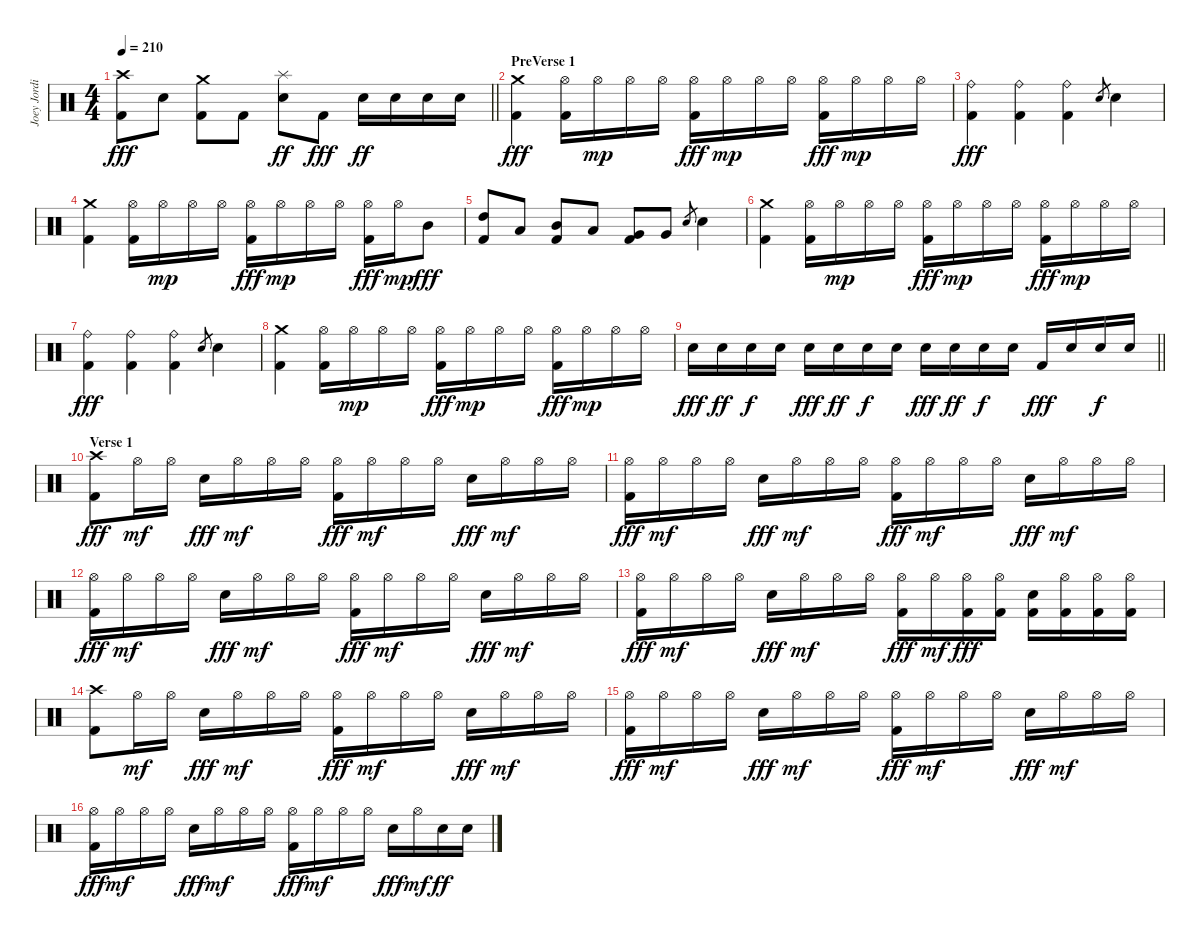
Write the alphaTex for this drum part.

\track ("Joey Jordison" "Joey Jordi") {instrument percussion}
\staff {score}
\articulation defaults
\ts (4 4)
\tempo 210
\clef neutral
\barLineRight lightlight
\ks c
("Crash high (hit)" "Kick (hit) 2").8{dy fff} "Electric Snare (hit)".8 ("Crash medium (hit)" "Kick (hit) 2").8 "Kick (hit) 2".8 ("Splash (hit)" "Electric Snare (hit)").8{dy ff} "Kick (hit) 2".8{dy fff} "Electric Snare (hit)".16{dy ff} "Electric Snare (hit)".16 "Electric Snare (hit)".16 "Electric Snare (hit)".16 |
\section ("" "PreVerse 1")
("Crash medium (hit)" "Kick (hit) 2").4{dy fff} ("Hi-Hat (open)" "Kick (hit) 2").16 "Hi-Hat (open)".16{dy mp} "Hi-Hat (open)".16 "Hi-Hat (open)".16 ("Hi-Hat (open)" "Kick (hit) 2").16{dy fff} "Hi-Hat (open)".16{dy mp} "Hi-Hat (open)".16 "Hi-Hat (open)".16 ("Hi-Hat (open)" "Kick (hit) 2").16{dy fff} "Hi-Hat (open)".16{dy mp} "Hi-Hat (open)".16 "Hi-Hat (open)".16 |
("Ride (bell)" "Kick (hit) 2").4{dy fff} ("Ride (bell)" "Kick (hit) 2").4 ("Ride (bell)" "Kick (hit) 2").4 "Electric Snare (hit)".8{gr} "Electric Snare (hit)".4 |
("Crash medium (hit)" "Kick (hit) 2").4 ("Hi-Hat (open)" "Kick (hit) 2").16 "Hi-Hat (open)".16{dy mp} "Hi-Hat (open)".16 "Hi-Hat (open)".16 ("Hi-Hat (open)" "Kick (hit) 2").16{dy fff} "Hi-Hat (open)".16{dy mp} "Hi-Hat (open)".16 "Hi-Hat (open)".16 ("Hi-Hat (open)" "Kick (hit) 2").16{dy fff} "Hi-Hat (open)".16{dy mp} "Mid Tom (hit)".8{dy fff} |
("High Tom (hit)" "Kick (hit) 2").8 "Low Tom (hit)".8 ("Mid Tom (hit)" "Kick (hit) 2").8 "Low Tom (hit)".8 ("Very Low Tom (hit)" "Kick (hit) 2").8 "Very Low Tom (hit)".8 "Electric Snare (hit)".8{gr} "Electric Snare (hit)".4 |
("Crash medium (hit)" "Kick (hit) 2").4 ("Hi-Hat (open)" "Kick (hit) 2").16 "Hi-Hat (open)".16{dy mp} "Hi-Hat (open)".16 "Hi-Hat (open)".16 ("Hi-Hat (open)" "Kick (hit) 2").16{dy fff} "Hi-Hat (open)".16{dy mp} "Hi-Hat (open)".16 "Hi-Hat (open)".16 ("Hi-Hat (open)" "Kick (hit) 2").16{dy fff} "Hi-Hat (open)".16{dy mp} "Hi-Hat (open)".16 "Hi-Hat (open)".16 |
("Ride (bell)" "Kick (hit) 2").4{dy fff} ("Ride (bell)" "Kick (hit) 2").4 ("Ride (bell)" "Kick (hit) 2").4 "Electric Snare (hit)".8{gr} "Electric Snare (hit)".4 |
("Crash medium (hit)" "Kick (hit) 2").4 ("Hi-Hat (open)" "Kick (hit) 2").16 "Hi-Hat (open)".16{dy mp} "Hi-Hat (open)".16 "Hi-Hat (open)".16 ("Hi-Hat (open)" "Kick (hit) 2").16{dy fff} "Hi-Hat (open)".16{dy mp} "Hi-Hat (open)".16 "Hi-Hat (open)".16 ("Hi-Hat (open)" "Kick (hit) 2").16{dy fff} "Hi-Hat (open)".16{dy mp} "Hi-Hat (open)".16 "Hi-Hat (open)".16 |
\barLineRight lightlight "Electric Snare (hit)".16{dy fff} "Electric Snare (hit)".16{dy ff} "Electric Snare (hit)".16{dy f} "Electric Snare (hit)".16 "Electric Snare (hit)".16{dy fff} "Electric Snare (hit)".16{dy ff} "Electric Snare (hit)".16{dy f} "Electric Snare (hit)".16 "Electric Snare (hit)".16{dy fff} "Electric Snare (hit)".16{dy ff} "Electric Snare (hit)".16{dy f} "Electric Snare (hit)".16 "Kick (hit) 2".16{dy fff} "Electric Snare (hit)".16 "Electric Snare (hit)".16{dy f} "Electric Snare (hit)".16
|
\section ("" "Verse 1")
("Crash high (hit)" "Kick (hit) 2").8{dy fff} "Hi-Hat (open)".16{dy mf} "Hi-Hat (open)".16 "Electric Snare (hit)".16{dy fff} "Hi-Hat (open)".16{dy mf} "Hi-Hat (open)".16 "Hi-Hat (open)".16 ("Hi-Hat (open)" "Kick (hit) 2").16{dy fff} "Hi-Hat (open)".16{dy mf} "Hi-Hat (open)".16 "Hi-Hat (open)".16 "Electric Snare (hit)".16{dy fff} "Hi-Hat (open)".16{dy mf} "Hi-Hat (open)".16 "Hi-Hat (open)".16 |
("Hi-Hat (open)" "Kick (hit) 2").16{dy fff} "Hi-Hat (open)".16{dy mf} "Hi-Hat (open)".16 "Hi-Hat (open)".16 "Electric Snare (hit)".16{dy fff} "Hi-Hat (open)".16{dy mf} "Hi-Hat (open)".16 "Hi-Hat (open)".16 ("Hi-Hat (open)" "Kick (hit) 2").16{dy fff} "Hi-Hat (open)".16{dy mf} "Hi-Hat (open)".16 "Hi-Hat (open)".16 "Electric Snare (hit)".16{dy fff} "Hi-Hat (open)".16{dy mf} "Hi-Hat (open)".16 "Hi-Hat (open)".16 |
("Hi-Hat (open)" "Kick (hit) 2").16{dy fff} "Hi-Hat (open)".16{dy mf} "Hi-Hat (open)".16 "Hi-Hat (open)".16 "Electric Snare (hit)".16{dy fff} "Hi-Hat (open)".16{dy mf} "Hi-Hat (open)".16 "Hi-Hat (open)".16 ("Hi-Hat (open)" "Kick (hit) 2").16{dy fff} "Hi-Hat (open)".16{dy mf} "Hi-Hat (open)".16 "Hi-Hat (open)".16 "Electric Snare (hit)".16{dy fff} "Hi-Hat (open)".16{dy mf} "Hi-Hat (open)".16 "Hi-Hat (open)".16 |
("Hi-Hat (open)" "Kick (hit) 2").16{dy fff} "Hi-Hat (open)".16{dy mf} "Hi-Hat (open)".16 "Hi-Hat (open)".16 "Electric Snare (hit)".16{dy fff} "Hi-Hat (open)".16{dy mf} "Hi-Hat (open)".16 "Hi-Hat (open)".16 ("Hi-Hat (open)" "Kick (hit) 2").16{dy fff} "Hi-Hat (open)".16{dy mf} ("Hi-Hat (open)" "Kick (hit) 2").16{dy fff} ("Hi-Hat (open)" "Kick (hit) 2").16 ("Electric Snare (hit)" "Kick (hit) 2").16 ("Hi-Hat (open)" "Kick (hit) 2").16 ("Hi-Hat (open)" "Kick (hit) 2").16 ("Hi-Hat (open)" "Kick (hit) 2").16 |
("Crash high (hit)" "Kick (hit) 2").8 "Hi-Hat (open)".16{dy mf} "Hi-Hat (open)".16 "Electric Snare (hit)".16{dy fff} "Hi-Hat (open)".16{dy mf} "Hi-Hat (open)".16 "Hi-Hat (open)".16 ("Hi-Hat (open)" "Kick (hit) 2").16{dy fff} "Hi-Hat (open)".16{dy mf} "Hi-Hat (open)".16 "Hi-Hat (open)".16 "Electric Snare (hit)".16{dy fff} "Hi-Hat (open)".16{dy mf} "Hi-Hat (open)".16 "Hi-Hat (open)".16 |
("Hi-Hat (open)" "Kick (hit) 2").16{dy fff} "Hi-Hat (open)".16{dy mf} "Hi-Hat (open)".16 "Hi-Hat (open)".16 "Electric Snare (hit)".16{dy fff} "Hi-Hat (open)".16{dy mf} "Hi-Hat (open)".16 "Hi-Hat (open)".16 ("Hi-Hat (open)" "Kick (hit) 2").16{dy fff} "Hi-Hat (open)".16{dy mf} "Hi-Hat (open)".16 "Hi-Hat (open)".16 "Electric Snare (hit)".16{dy fff} "Hi-Hat (open)".16{dy mf} "Hi-Hat (open)".16 "Hi-Hat (open)".16 |
("Hi-Hat (open)" "Kick (hit) 2").16{dy fff} "Hi-Hat (open)".16{dy mf} "Hi-Hat (open)".16 "Hi-Hat (open)".16 "Electric Snare (hit)".16{dy fff} "Hi-Hat (open)".16{dy mf} "Hi-Hat (open)".16 "Hi-Hat (open)".16 ("Hi-Hat (open)" "Kick (hit) 2").16{dy fff} "Hi-Hat (open)".16{dy mf} "Hi-Hat (open)".16 "Hi-Hat (open)".16 "Electric Snare (hit)".16{dy fff} "Hi-Hat (open)".16{dy mf} "Electric Snare (hit)".16{dy ff} "Electric Snare (hit)".16
